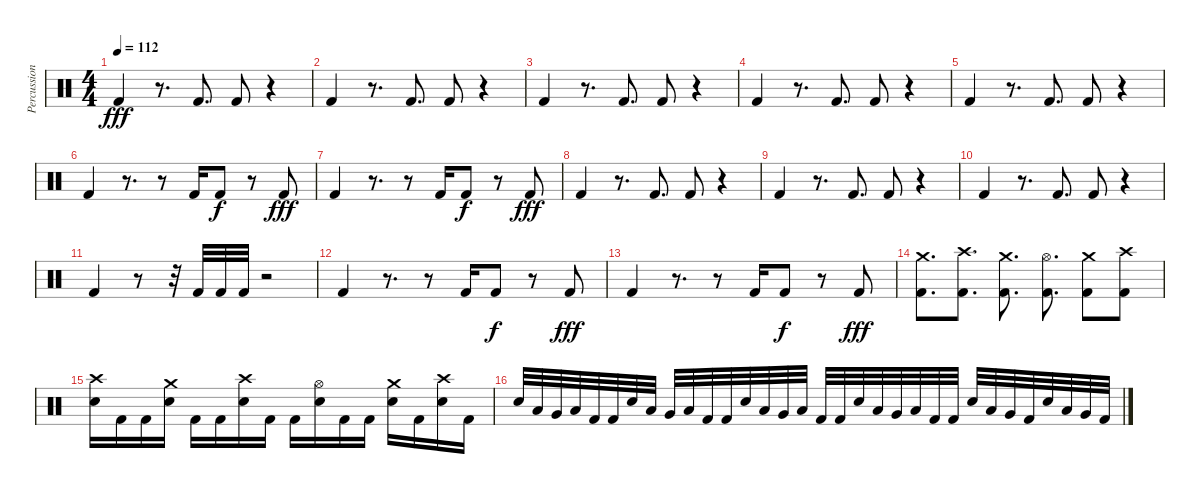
\track ("Percussion" "Percussion") {instrument percussion}
\staff {score}
\articulation defaults
\ts (4 4)
\tempo 112
\clef neutral
\ks c "Kick (hit) 2".4{dy fff}
r.8{d} "Kick (hit) 2".8{d} "Kick (hit) 2".8 r.4 |
"Kick (hit) 2".4 r.8{d} "Kick (hit) 2".8{d} "Kick (hit) 2".8 r.4 |
"Kick (hit) 2".4 r.8{d} "Kick (hit) 2".8{d} "Kick (hit) 2".8 r.4 |
"Kick (hit) 2".4 r.8{d} "Kick (hit) 2".8{d} "Kick (hit) 2".8 r.4 |
"Kick (hit) 2".4 r.8{d} "Kick (hit) 2".8{d} "Kick (hit) 2".8 r.4 |
"Kick (hit) 2".4 r.8{d} r.8 "Kick (hit) 2".16 "Kick (hit) 2".8{dy f} r.8 "Kick (hit) 2".8{dy fff} |
"Kick (hit) 2".4 r.8{d} r.8 "Kick (hit) 2".16 "Kick (hit) 2".8{dy f} r.8 "Kick (hit) 2".8{dy fff} |
"Kick (hit) 2".4 r.8{d} "Kick (hit) 2".8{d} "Kick (hit) 2".8 r.4 |
"Kick (hit) 2".4 r.8{d} "Kick (hit) 2".8{d} "Kick (hit) 2".8 r.4 |
"Kick (hit) 2".4 r.8{d} "Kick (hit) 2".8{d} "Kick (hit) 2".8 r.4 |
"Kick (hit) 2".4 r.8 r.32 "Kick (hit) 2".32 "Kick (hit) 2".32 "Kick (hit) 2".32 r.2 |
"Kick (hit) 2".4 r.8{d} r.8 "Kick (hit) 2".16 "Kick (hit) 2".8{dy f} r.8 "Kick (hit) 2".8{dy fff} |
"Kick (hit) 2".4 r.8{d} r.8 "Kick (hit) 2".16 "Kick (hit) 2".8{dy f} r.8 "Kick (hit) 2".8{dy fff} |
("Crash medium (hit)" "Kick (hit) 2").8{d} ("Crash high (hit)" "Kick (hit) 2").8{d} ("Crash medium (hit)" "Kick (hit) 2").8{d} ("Hi-Hat (open)" "Kick (hit) 2").8{d} ("Crash medium (hit)" "Kick (hit) 2").8 ("Crash high (hit)" "Kick (hit) 2").8 |
("Crash high (hit)" "Snare (hit) 2").16 "Kick (hit) 2".16 "Kick (hit) 2".16 ("Crash medium (hit)" "Snare (hit) 2").16 "Kick (hit) 2".16 "Kick (hit) 2".16 ("Crash high (hit)" "Snare (hit) 2").16 "Kick (hit) 2".16 "Kick (hit) 2".16 ("Hi-Hat (open)" "Snare (hit) 2").16 "Kick (hit) 2".16 "Kick (hit) 2".16 ("Crash medium (hit)" "Snare (hit) 2").16 "Kick (hit) 2".16 ("Crash high (hit)" "Snare (hit) 2").16 "Kick (hit) 2".16 |
"Snare (hit) 2".32 "Low Tom (hit)".32 "Very Low Tom (hit)".32 "Low Tom (hit)".32 "Kick (hit) 2".32 "Kick (hit) 2".32 "Snare (hit) 2".32 "Low Tom (hit)".32 "Very Low Tom (hit)".32 "Low Tom (hit)".32 "Kick (hit) 2".32 "Kick (hit) 2".32 "Snare (hit) 2".32 "Low Tom (hit)".32 "Very Low Tom (hit)".32 "Low Tom (hit)".32 "Kick (hit) 2".32 "Kick (hit) 2".32 "Snare (hit) 2".32 "Low Tom (hit)".32 "Very Low Tom (hit)".32 "Low Tom (hit)".32 "Kick (hit) 2".32 "Kick (hit) 2".32 "Snare (hit) 2".32 "Low Tom (hit)".32 "Very Low Tom (hit)".32 "Kick (hit) 2".32 "Snare (hit) 2".32 "Low Tom (hit)".32 "Very Low Tom (hit)".32 "Kick (hit) 2".32
